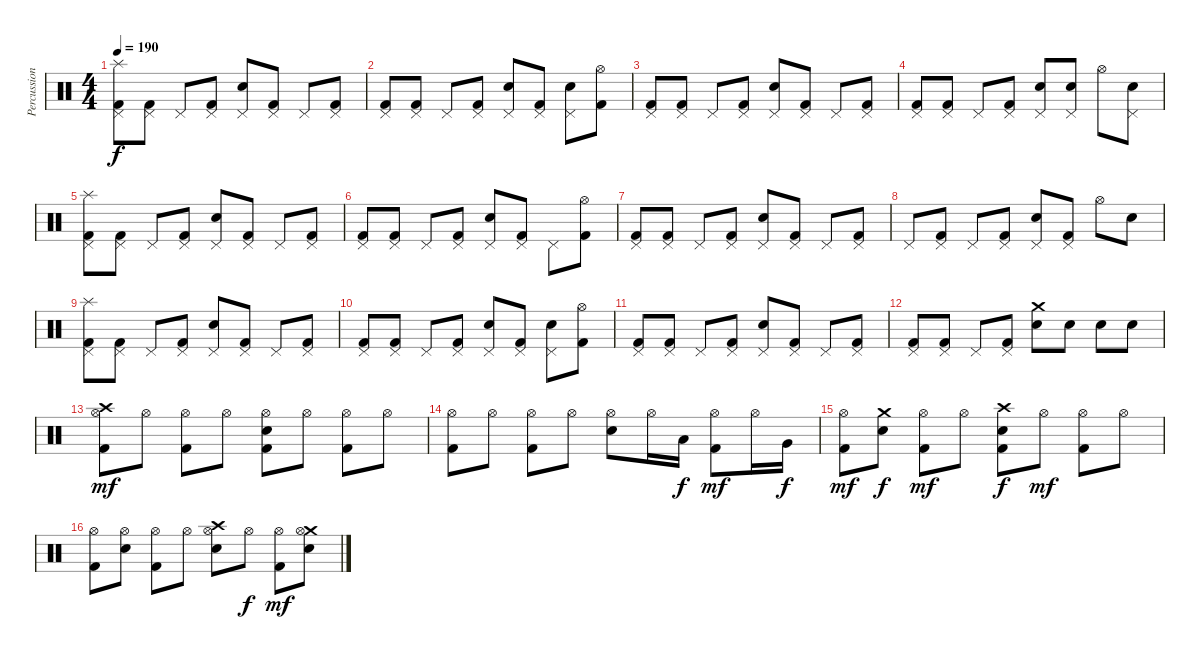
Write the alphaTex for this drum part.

\track ("Percussion" "Percussion") {instrument percussion}
\staff {score}
\articulation defaults
\ts (4 4)
\tempo 190
\clef neutral
\ks c
("Splash (hit)" "Pedal Hi-Hat (hit)" "Kick (hit) 2").8{dy f} ("Pedal Hi-Hat (hit)" "Kick (hit) 2").8 "Pedal Hi-Hat (hit)".8 ("Pedal Hi-Hat (hit)" "Kick (hit) 2").8 ("Pedal Hi-Hat (hit)" "Electric Snare (hit)").8 ("Pedal Hi-Hat (hit)" "Kick (hit) 2").8 "Pedal Hi-Hat (hit)".8 ("Pedal Hi-Hat (hit)" "Kick (hit) 2").8 |
("Pedal Hi-Hat (hit)" "Kick (hit) 2").8 ("Pedal Hi-Hat (hit)" "Kick (hit) 2").8 "Pedal Hi-Hat (hit)".8 ("Pedal Hi-Hat (hit)" "Kick (hit) 2").8 ("Pedal Hi-Hat (hit)" "Electric Snare (hit)").8 ("Pedal Hi-Hat (hit)" "Kick (hit) 2").8 ("Pedal Hi-Hat (hit)" "Electric Snare (hit)").8 ("Hi-Hat (open)" "Kick (hit) 2").8 |
("Pedal Hi-Hat (hit)" "Kick (hit) 2").8 ("Pedal Hi-Hat (hit)" "Kick (hit) 2").8 "Pedal Hi-Hat (hit)".8 ("Pedal Hi-Hat (hit)" "Kick (hit) 2").8 ("Pedal Hi-Hat (hit)" "Electric Snare (hit)").8 ("Pedal Hi-Hat (hit)" "Kick (hit) 2").8 "Pedal Hi-Hat (hit)".8 ("Pedal Hi-Hat (hit)" "Kick (hit) 2").8 |
("Pedal Hi-Hat (hit)" "Kick (hit) 2").8 ("Pedal Hi-Hat (hit)" "Kick (hit) 2").8 "Pedal Hi-Hat (hit)".8 ("Pedal Hi-Hat (hit)" "Kick (hit) 2").8 ("Pedal Hi-Hat (hit)" "Electric Snare (hit)").8 ("Pedal Hi-Hat (hit)" "Electric Snare (hit)").8 "Hi-Hat (open)".8 ("Pedal Hi-Hat (hit)" "Electric Snare (hit)").8 |
("Splash (hit)" "Pedal Hi-Hat (hit)" "Kick (hit) 2").8 ("Pedal Hi-Hat (hit)" "Kick (hit) 2").8 "Pedal Hi-Hat (hit)".8 ("Pedal Hi-Hat (hit)" "Kick (hit) 2").8 ("Pedal Hi-Hat (hit)" "Electric Snare (hit)").8 ("Pedal Hi-Hat (hit)" "Kick (hit) 2").8 "Pedal Hi-Hat (hit)".8 ("Pedal Hi-Hat (hit)" "Kick (hit) 2").8 |
("Pedal Hi-Hat (hit)" "Kick (hit) 2").8 ("Pedal Hi-Hat (hit)" "Kick (hit) 2").8 "Pedal Hi-Hat (hit)".8 ("Pedal Hi-Hat (hit)" "Kick (hit) 2").8 ("Pedal Hi-Hat (hit)" "Electric Snare (hit)").8 ("Pedal Hi-Hat (hit)" "Kick (hit) 2").8 "Pedal Hi-Hat (hit)".8 ("Hi-Hat (open)" "Kick (hit) 2").8 |
("Pedal Hi-Hat (hit)" "Kick (hit) 2").8 ("Pedal Hi-Hat (hit)" "Kick (hit) 2").8 "Pedal Hi-Hat (hit)".8 ("Pedal Hi-Hat (hit)" "Kick (hit) 2").8 ("Pedal Hi-Hat (hit)" "Electric Snare (hit)").8 ("Pedal Hi-Hat (hit)" "Kick (hit) 2").8 "Pedal Hi-Hat (hit)".8 ("Pedal Hi-Hat (hit)" "Kick (hit) 2").8 |
"Pedal Hi-Hat (hit)".8 ("Pedal Hi-Hat (hit)" "Kick (hit) 2").8 "Pedal Hi-Hat (hit)".8 ("Pedal Hi-Hat (hit)" "Kick (hit) 2").8 ("Pedal Hi-Hat (hit)" "Electric Snare (hit)").8 ("Pedal Hi-Hat (hit)" "Kick (hit) 2").8 "Hi-Hat (open)".8 "Electric Snare (hit)".8 |
("Splash (hit)" "Pedal Hi-Hat (hit)" "Kick (hit) 2").8 ("Pedal Hi-Hat (hit)" "Kick (hit) 2").8 "Pedal Hi-Hat (hit)".8 ("Pedal Hi-Hat (hit)" "Kick (hit) 2").8 ("Pedal Hi-Hat (hit)" "Electric Snare (hit)").8 ("Pedal Hi-Hat (hit)" "Kick (hit) 2").8 "Pedal Hi-Hat (hit)".8 ("Pedal Hi-Hat (hit)" "Kick (hit) 2").8 |
("Pedal Hi-Hat (hit)" "Kick (hit) 2").8 ("Pedal Hi-Hat (hit)" "Kick (hit) 2").8 "Pedal Hi-Hat (hit)".8 ("Pedal Hi-Hat (hit)" "Kick (hit) 2").8 ("Pedal Hi-Hat (hit)" "Electric Snare (hit)").8 ("Pedal Hi-Hat (hit)" "Kick (hit) 2").8 ("Pedal Hi-Hat (hit)" "Electric Snare (hit)").8 ("Hi-Hat (open)" "Kick (hit) 2").8 |
("Pedal Hi-Hat (hit)" "Kick (hit) 2").8 ("Pedal Hi-Hat (hit)" "Kick (hit) 2").8 "Pedal Hi-Hat (hit)".8 ("Pedal Hi-Hat (hit)" "Kick (hit) 2").8 ("Pedal Hi-Hat (hit)" "Electric Snare (hit)").8 ("Pedal Hi-Hat (hit)" "Kick (hit) 2").8 "Pedal Hi-Hat (hit)".8 ("Pedal Hi-Hat (hit)" "Kick (hit) 2").8 |
("Pedal Hi-Hat (hit)" "Kick (hit) 2").8 ("Pedal Hi-Hat (hit)" "Kick (hit) 2").8 "Pedal Hi-Hat (hit)".8 ("Pedal Hi-Hat (hit)" "Kick (hit) 2").8 ("Crash medium (hit)" "Electric Snare (hit)").8 "Electric Snare (hit)".8 "Electric Snare (hit)".8 "Electric Snare (hit)".8 |
("Crash high (hit)" "Hi-Hat (open)" "Kick (hit) 2").8{dy mf} "Hi-Hat (open)".8 ("Hi-Hat (open)" "Kick (hit) 2").8 "Hi-Hat (open)".8 ("Hi-Hat (open)" "Electric Snare (hit)" "Kick (hit) 2").8 "Hi-Hat (open)".8 ("Hi-Hat (open)" "Kick (hit) 2").8 "Hi-Hat (open)".8 |
("Hi-Hat (open)" "Kick (hit) 2").8 "Hi-Hat (open)".8 ("Hi-Hat (open)" "Kick (hit) 2").8 "Hi-Hat (open)".8 ("Hi-Hat (open)" "Electric Snare (hit)").8 "Hi-Hat (open)".16 "Low Tom (hit)".16{dy f} ("Hi-Hat (open)" "Kick (hit) 2").8{dy mf} "Hi-Hat (open)".16 "Very Low Tom (hit)".16{dy f} |
("Hi-Hat (open)" "Kick (hit) 2").8{dy mf} ("Crash medium (hit)" "Electric Snare (hit)").8{dy f} ("Hi-Hat (open)" "Kick (hit) 2").8{dy mf} "Hi-Hat (open)".8 ("Crash high (hit)" "Electric Snare (hit)" "Kick (hit) 2").8{dy f} "Hi-Hat (open)".8{dy mf} ("Hi-Hat (open)" "Kick (hit) 2").8 "Hi-Hat (open)".8 |
("Hi-Hat (open)" "Kick (hit) 2").8 ("Hi-Hat (open)" "Electric Snare (hit)").8 ("Hi-Hat (open)" "Kick (hit) 2").8 "Hi-Hat (open)".8 ("Crash high (hit)" "Hi-Hat (open)" "Electric Snare (hit)").8 "Hi-Hat (open)".8{dy f} ("Hi-Hat (open)" "Kick (hit) 2").8{dy mf} ("Crash medium (hit)" "Hi-Hat (open)" "Electric Snare (hit)").8
